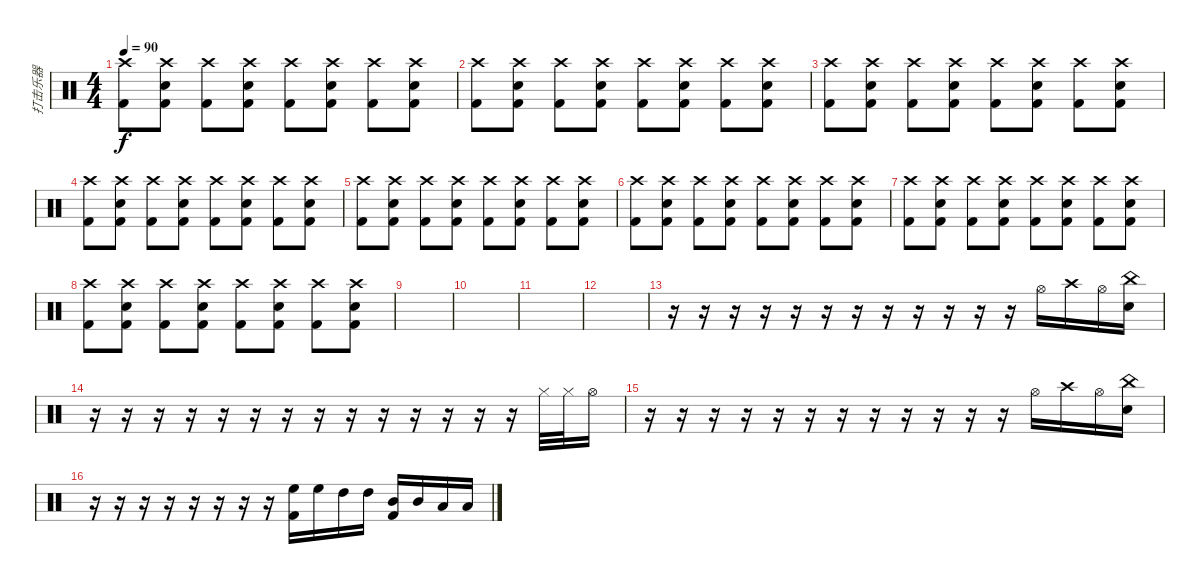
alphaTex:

\track ("打击乐器" "打击乐器") {instrument percussion}
\staff {score}
\articulation defaults
\ts (4 4)
\tempo 90
\clef neutral
\ks c
("Crash high (hit)" "Kick (hit) 2").8{dy f} ("Crash high (hit)" "Electric Snare (hit)" "Kick (hit) 2").8 ("Crash high (hit)" "Kick (hit) 2").8 ("Crash high (hit)" "Electric Snare (hit)" "Kick (hit) 2").8 ("Crash high (hit)" "Kick (hit) 2").8 ("Crash high (hit)" "Electric Snare (hit)" "Kick (hit) 2").8 ("Crash high (hit)" "Kick (hit) 2").8 ("Crash high (hit)" "Electric Snare (hit)" "Kick (hit) 2").8 |
("Crash high (hit)" "Kick (hit) 2").8 ("Crash high (hit)" "Electric Snare (hit)" "Kick (hit) 2").8 ("Crash high (hit)" "Kick (hit) 2").8 ("Crash high (hit)" "Electric Snare (hit)" "Kick (hit) 2").8 ("Crash high (hit)" "Kick (hit) 2").8 ("Crash high (hit)" "Electric Snare (hit)" "Kick (hit) 2").8 ("Crash high (hit)" "Kick (hit) 2").8 ("Crash high (hit)" "Electric Snare (hit)" "Kick (hit) 2").8 |
("Crash high (hit)" "Kick (hit) 2").8 ("Crash high (hit)" "Electric Snare (hit)" "Kick (hit) 2").8 ("Crash high (hit)" "Kick (hit) 2").8 ("Crash high (hit)" "Electric Snare (hit)" "Kick (hit) 2").8 ("Crash high (hit)" "Kick (hit) 2").8 ("Crash high (hit)" "Electric Snare (hit)" "Kick (hit) 2").8 ("Crash high (hit)" "Kick (hit) 2").8 ("Crash high (hit)" "Electric Snare (hit)" "Kick (hit) 2").8 |
("Crash high (hit)" "Kick (hit) 2").8 ("Crash high (hit)" "Electric Snare (hit)" "Kick (hit) 2").8 ("Crash high (hit)" "Kick (hit) 2").8 ("Crash high (hit)" "Electric Snare (hit)" "Kick (hit) 2").8 ("Crash high (hit)" "Kick (hit) 2").8 ("Crash high (hit)" "Electric Snare (hit)" "Kick (hit) 2").8 ("Crash high (hit)" "Kick (hit) 2").8 ("Crash high (hit)" "Electric Snare (hit)" "Kick (hit) 2").8 |
("Crash high (hit)" "Kick (hit) 2").8 ("Crash high (hit)" "Electric Snare (hit)" "Kick (hit) 2").8 ("Crash high (hit)" "Kick (hit) 2").8 ("Crash high (hit)" "Electric Snare (hit)" "Kick (hit) 2").8 ("Crash high (hit)" "Kick (hit) 2").8 ("Crash high (hit)" "Electric Snare (hit)" "Kick (hit) 2").8 ("Crash high (hit)" "Kick (hit) 2").8 ("Crash high (hit)" "Electric Snare (hit)" "Kick (hit) 2").8 |
("Crash high (hit)" "Kick (hit) 2").8 ("Crash high (hit)" "Electric Snare (hit)" "Kick (hit) 2").8 ("Crash high (hit)" "Kick (hit) 2").8 ("Crash high (hit)" "Electric Snare (hit)" "Kick (hit) 2").8 ("Crash high (hit)" "Kick (hit) 2").8 ("Crash high (hit)" "Electric Snare (hit)" "Kick (hit) 2").8 ("Crash high (hit)" "Kick (hit) 2").8 ("Crash high (hit)" "Electric Snare (hit)" "Kick (hit) 2").8 |
("Crash high (hit)" "Kick (hit) 2").8 ("Crash high (hit)" "Electric Snare (hit)" "Kick (hit) 2").8 ("Crash high (hit)" "Kick (hit) 2").8 ("Crash high (hit)" "Electric Snare (hit)" "Kick (hit) 2").8 ("Crash high (hit)" "Kick (hit) 2").8 ("Crash high (hit)" "Electric Snare (hit)" "Kick (hit) 2").8 ("Crash high (hit)" "Kick (hit) 2").8 ("Crash high (hit)" "Electric Snare (hit)" "Kick (hit) 2").8 |
("Crash high (hit)" "Kick (hit) 2").8 ("Crash high (hit)" "Electric Snare (hit)" "Kick (hit) 2").8 ("Crash high (hit)" "Kick (hit) 2").8 ("Crash high (hit)" "Electric Snare (hit)" "Kick (hit) 2").8 ("Crash high (hit)" "Kick (hit) 2").8 ("Crash high (hit)" "Electric Snare (hit)" "Kick (hit) 2").8 ("Crash high (hit)" "Kick (hit) 2").8 ("Crash high (hit)" "Electric Snare (hit)" "Kick (hit) 2").8 |
|
|
|
|
r.16 r.16 r.16 r.16 r.16 r.16 r.16 r.16 r.16 r.16 r.16 r.16 "Hi-Hat (open)".16 "Crash high (hit)".16 "Hi-Hat (open)".16 ("China (hit)" "Electric Snare (hit)").16 |
r.16 r.16 r.16 r.16 r.16 r.16 r.16 r.16 r.16 r.16 r.16 r.16 r.16 r.16 "Hi-Hat (closed)".32 "Hi-Hat (closed)".32 "Hi-Hat (open)".16 |
r.16 r.16 r.16 r.16 r.16 r.16 r.16 r.16 r.16 r.16 r.16 r.16 "Hi-Hat (open)".16 "Crash high (hit)".16 "Hi-Hat (open)".16 ("China (hit)" "Electric Snare (hit)").16 |
r.16 r.16 r.16 r.16 r.16 r.16 r.16 r.16 ("High Floor Tom (hit)" "Kick (hit) 2").16 "High Floor Tom (hit)".16 "High Tom (hit)".16 "High Tom (hit)".16 ("Mid Tom (hit)" "Kick (hit) 2").16 "Mid Tom (hit)".16 "Low Tom (hit)".16 "Low Tom (hit)".16
